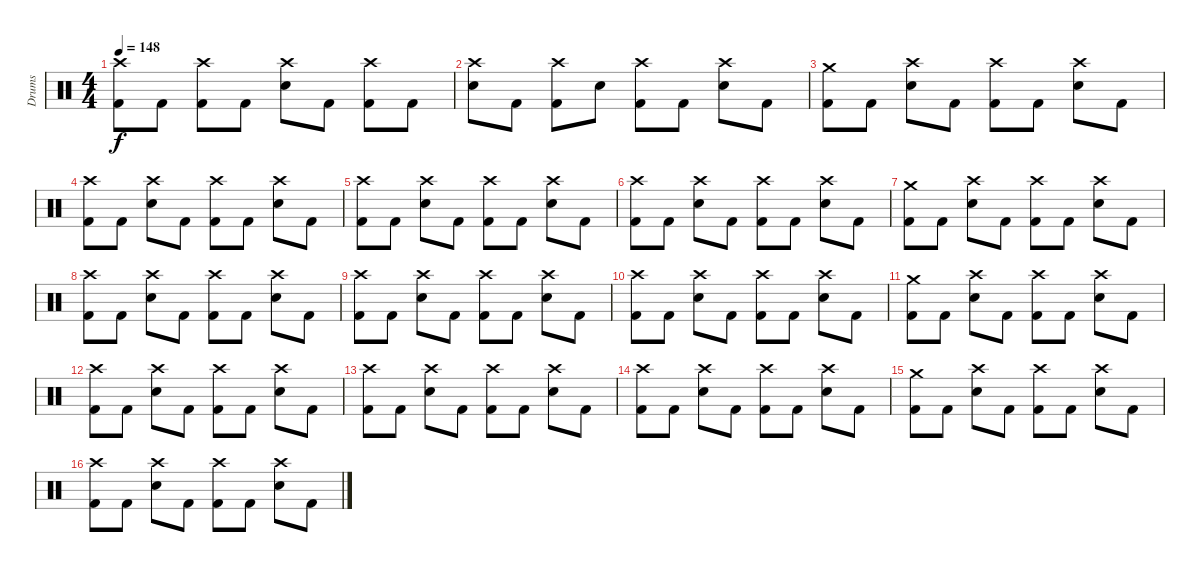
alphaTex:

\track ("Drums" "Drums") {instrument percussion}
\staff {score}
\articulation defaults
\ts (4 4)
\tempo 148
\clef neutral
\ks c
("Crash high (hit)" "Kick (hit) 2").8{dy f} "Kick (hit) 2".8 ("Crash high (hit)" "Kick (hit) 2").8 "Kick (hit) 2".8 ("Crash high (hit)" "Snare (hit) 2").8 "Kick (hit) 2".8 ("Crash high (hit)" "Kick (hit) 2").8 "Kick (hit) 2".8 |
("Crash high (hit)" "Snare (hit) 2").8 "Kick (hit) 2".8 ("Crash high (hit)" "Kick (hit) 2").8 "Snare (hit) 2".8 ("Crash high (hit)" "Kick (hit) 2").8 "Kick (hit) 2".8 ("Crash high (hit)" "Snare (hit) 2").8 "Kick (hit) 2".8 |
("Crash medium (hit)" "Kick (hit) 2").8 "Kick (hit) 2".8 ("Crash high (hit)" "Snare (hit) 2").8 "Kick (hit) 2".8 ("Crash high (hit)" "Kick (hit) 2").8 "Kick (hit) 2".8 ("Crash high (hit)" "Snare (hit) 2").8 "Kick (hit) 2".8 |
("Crash high (hit)" "Kick (hit) 2").8 "Kick (hit) 2".8 ("Crash high (hit)" "Snare (hit) 2").8 "Kick (hit) 2".8 ("Crash high (hit)" "Kick (hit) 2").8 "Kick (hit) 2".8 ("Crash high (hit)" "Snare (hit) 2").8 "Kick (hit) 2".8 |
("Crash high (hit)" "Kick (hit) 2").8 "Kick (hit) 2".8 ("Crash high (hit)" "Snare (hit) 2").8 "Kick (hit) 2".8 ("Crash high (hit)" "Kick (hit) 2").8 "Kick (hit) 2".8 ("Crash high (hit)" "Snare (hit) 2").8 "Kick (hit) 2".8 |
("Crash high (hit)" "Kick (hit) 2").8 "Kick (hit) 2".8 ("Crash high (hit)" "Snare (hit) 2").8 "Kick (hit) 2".8 ("Crash high (hit)" "Kick (hit) 2").8 "Kick (hit) 2".8 ("Crash high (hit)" "Snare (hit) 2").8 "Kick (hit) 2".8 |
("Crash medium (hit)" "Kick (hit) 2").8 "Kick (hit) 2".8 ("Crash high (hit)" "Snare (hit) 2").8 "Kick (hit) 2".8 ("Crash high (hit)" "Kick (hit) 2").8 "Kick (hit) 2".8 ("Crash high (hit)" "Snare (hit) 2").8 "Kick (hit) 2".8 |
("Crash high (hit)" "Kick (hit) 2").8 "Kick (hit) 2".8 ("Crash high (hit)" "Snare (hit) 2").8 "Kick (hit) 2".8 ("Crash high (hit)" "Kick (hit) 2").8 "Kick (hit) 2".8 ("Crash high (hit)" "Snare (hit) 2").8 "Kick (hit) 2".8 |
("Crash high (hit)" "Kick (hit) 2").8 "Kick (hit) 2".8 ("Crash high (hit)" "Snare (hit) 2").8 "Kick (hit) 2".8 ("Crash high (hit)" "Kick (hit) 2").8 "Kick (hit) 2".8 ("Crash high (hit)" "Snare (hit) 2").8 "Kick (hit) 2".8 |
("Crash high (hit)" "Kick (hit) 2").8 "Kick (hit) 2".8 ("Crash high (hit)" "Snare (hit) 2").8 "Kick (hit) 2".8 ("Crash high (hit)" "Kick (hit) 2").8 "Kick (hit) 2".8 ("Crash high (hit)" "Snare (hit) 2").8 "Kick (hit) 2".8 |
("Crash medium (hit)" "Kick (hit) 2").8 "Kick (hit) 2".8 ("Crash high (hit)" "Snare (hit) 2").8 "Kick (hit) 2".8 ("Crash high (hit)" "Kick (hit) 2").8 "Kick (hit) 2".8 ("Crash high (hit)" "Snare (hit) 2").8 "Kick (hit) 2".8 |
("Crash high (hit)" "Kick (hit) 2").8 "Kick (hit) 2".8 ("Crash high (hit)" "Snare (hit) 2").8 "Kick (hit) 2".8 ("Crash high (hit)" "Kick (hit) 2").8 "Kick (hit) 2".8 ("Crash high (hit)" "Snare (hit) 2").8 "Kick (hit) 2".8 |
("Crash high (hit)" "Kick (hit) 2").8 "Kick (hit) 2".8 ("Crash high (hit)" "Snare (hit) 2").8 "Kick (hit) 2".8 ("Crash high (hit)" "Kick (hit) 2").8 "Kick (hit) 2".8 ("Crash high (hit)" "Snare (hit) 2").8 "Kick (hit) 2".8 |
("Crash high (hit)" "Kick (hit) 2").8 "Kick (hit) 2".8 ("Crash high (hit)" "Snare (hit) 2").8 "Kick (hit) 2".8 ("Crash high (hit)" "Kick (hit) 2").8 "Kick (hit) 2".8 ("Crash high (hit)" "Snare (hit) 2").8 "Kick (hit) 2".8 |
("Crash medium (hit)" "Kick (hit) 2").8 "Kick (hit) 2".8 ("Crash high (hit)" "Snare (hit) 2").8 "Kick (hit) 2".8 ("Crash high (hit)" "Kick (hit) 2").8 "Kick (hit) 2".8 ("Crash high (hit)" "Snare (hit) 2").8 "Kick (hit) 2".8 |
("Crash high (hit)" "Kick (hit) 2").8 "Kick (hit) 2".8 ("Crash high (hit)" "Snare (hit) 2").8 "Kick (hit) 2".8 ("Crash high (hit)" "Kick (hit) 2").8 "Kick (hit) 2".8 ("Crash high (hit)" "Snare (hit) 2").8 "Kick (hit) 2".8
